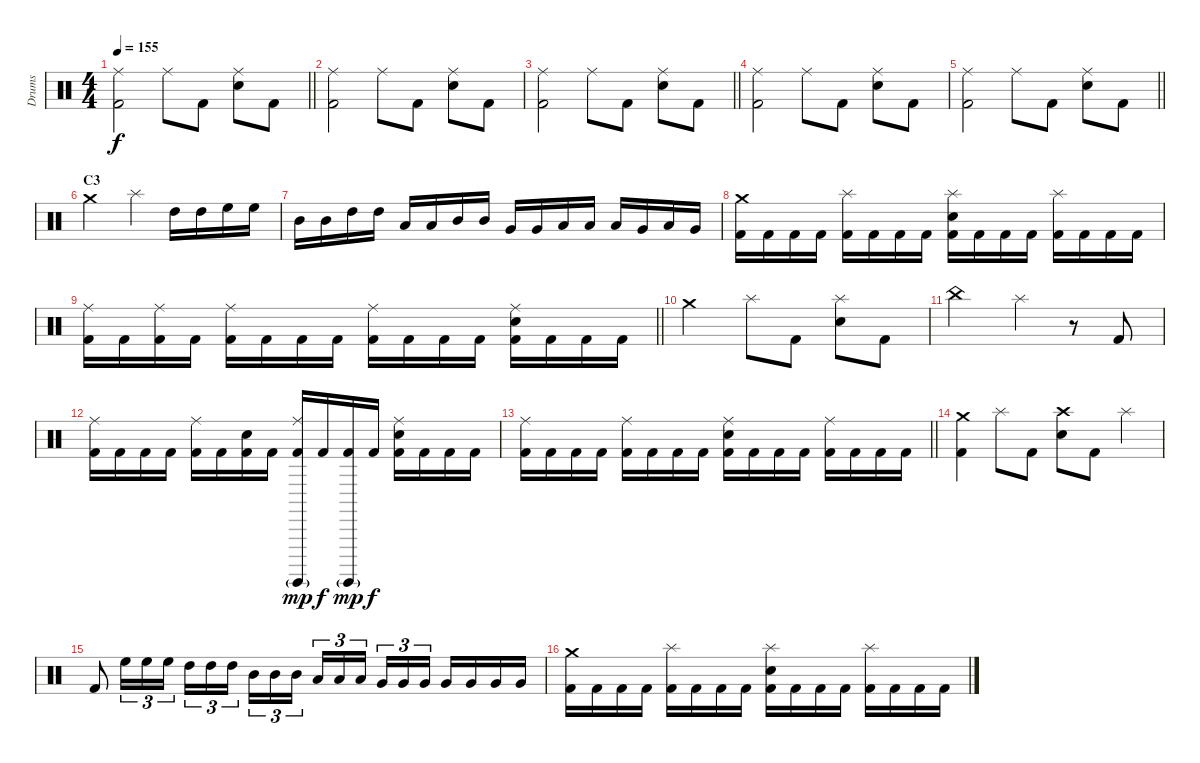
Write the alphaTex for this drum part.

\track ("Drums" "Drums") {instrument percussion}
\staff {score}
\articulation defaults
\ts (4 4)
\tempo 155
\clef neutral
\barLineRight lightlight
\ks c
("Ride (middle)" "Kick (hit) 2").2{dy f} "Ride (middle)".8 "Kick (hit) 2".8 ("Ride (middle)" "Electric Snare (hit)").8 "Kick (hit) 2".8 |
\section ("" "")
("Ride (middle)" "Kick (hit) 2").2 "Ride (middle)".8 "Kick (hit) 2".8 ("Ride (middle)" "Electric Snare (hit)").8 "Kick (hit) 2".8 |
\barLineRight lightlight
("Ride (middle)" "Kick (hit) 2").2 "Ride (middle)".8 "Kick (hit) 2".8 ("Ride (middle)" "Electric Snare (hit)").8 "Kick (hit) 2".8 |
("Ride (middle)" "Kick (hit) 2").2 "Ride (middle)".8 "Kick (hit) 2".8 ("Ride (middle)" "Electric Snare (hit)").8 "Kick (hit) 2".8 |
\barLineRight lightlight
("Ride (middle)" "Kick (hit) 2").2 "Ride (middle)".8 "Kick (hit) 2".8 ("Ride (middle)" "Electric Snare (hit)").8 "Kick (hit) 2".8 |
\section ("" "C3")
"Crash medium (hit)".2 "Splash (hit)".4 "High Tom (hit)".16 "High Tom (hit)".16 "High Floor Tom (hit)".16 "High Floor Tom (hit)".16 |
"Mid Tom (hit)".16 "Mid Tom (hit)".16 "High Tom (hit)".16 "High Tom (hit)".16 "Low Tom (hit)".16 "Low Tom (hit)".16 "Mid Tom (hit)".16 "Mid Tom (hit)".16 "Very Low Tom (hit)".16 "Very Low Tom (hit)".16 "Low Tom (hit)".16 "Low Tom (hit)".16 "Low Floor Tom (hit)".16 "Very Low Tom (hit)".16 "Low Floor Tom (hit)".16 "Very Low Tom (hit)".16 |
("Crash medium (hit)" "Kick (hit) 2").16 "Kick (hit) 2".16 "Kick (hit) 2".16 "Kick (hit) 2".16 ("Splash (hit)" "Kick (hit) 2").16 "Kick (hit) 2".16 "Kick (hit) 2".16 "Kick (hit) 2".16 ("Splash (hit)" "Electric Snare (hit)" "Kick (hit) 2").16 "Kick (hit) 2".16 "Kick (hit) 2".16 "Kick (hit) 2".16 ("Splash (hit)" "Kick (hit) 2").16 "Kick (hit) 2".16 "Kick (hit) 2".16 "Kick (hit) 2".16 |
\barLineRight lightlight
("Ride (middle)" "Kick (hit) 2").16 "Kick (hit) 2".16 ("Ride (middle)" "Kick (hit) 2").16 "Kick (hit) 2".16 ("Ride (middle)" "Kick (hit) 2").16 "Kick (hit) 2".16 "Kick (hit) 2".16 "Kick (hit) 2".16 ("Ride (middle)" "Kick (hit) 2").16 "Kick (hit) 2".16 "Kick (hit) 2".16 "Kick (hit) 2".16 ("Ride (middle)" "Electric Snare (hit)" "Kick (hit) 2").16 "Kick (hit) 2".16 "Kick (hit) 2".16 "Kick (hit) 2".16 |
\section ("" "")
"Crash medium (hit)".2 "Splash (hit)".8 "Kick (hit) 2".8 ("Splash (hit)" "Electric Snare (hit)").8 "Kick (hit) 2".8 |
"China (hit)".2 "Splash (hit)".4 r.8 "Kick (hit) 2".8 |
("Ride (middle)" "Kick (hit) 2").16 "Kick (hit) 2".16 "Kick (hit) 2".16 "Kick (hit) 2".16 ("Ride (middle)" "Kick (hit) 2").16 "Kick (hit) 2".16 ("Electric Snare (hit)" "Kick (hit) 2").16 "Kick (hit) 2".16 ("Ride (middle)" "Surdo (hit)"{g} "Kick (hit) 2").16{dy mp} "Kick (hit) 2".16{dy f} ("Surdo (hit)"{g} "Kick (hit) 2").16{dy mp} "Kick (hit) 2".16{dy f} ("Ride (middle)" "Electric Snare (hit)" "Kick (hit) 2").16 "Kick (hit) 2".16 "Kick (hit) 2".16 "Kick (hit) 2".16 |
\barLineRight lightlight
("Ride (middle)" "Kick (hit) 2").16 "Kick (hit) 2".16 "Kick (hit) 2".16 "Kick (hit) 2".16 ("Ride (middle)" "Kick (hit) 2").16 "Kick (hit) 2".16 "Kick (hit) 2".16 "Kick (hit) 2".16 ("Ride (middle)" "Electric Snare (hit)" "Kick (hit) 2").16 "Kick (hit) 2".16 "Kick (hit) 2".16 "Kick (hit) 2".16 ("Ride (middle)" "Kick (hit) 2").16 "Kick (hit) 2".16 "Kick (hit) 2".16 "Kick (hit) 2".16 |
\section ("" "")
("Crash medium (hit)" "Kick (hit) 2").4 "Splash (hit)".8 "Kick (hit) 2".8 ("Crash high (hit)" "Electric Snare (hit)").8 "Kick (hit) 2".8 "Splash (hit)".4 |
"Kick (hit) 2".8 "High Floor Tom (hit)".16{tu (3 2)} "High Floor Tom (hit)".16{tu (3 2)} "High Floor Tom (hit)".16{tu (3 2)} "High Tom (hit)".16{tu (3 2)} "High Tom (hit)".16{tu (3 2)} "High Tom (hit)".16{tu (3 2) beam splitsecondary} "Mid Tom (hit)".16{tu (3 2)} "Mid Tom (hit)".16{tu (3 2)} "Mid Tom (hit)".16{tu (3 2)} "Low Tom (hit)".16{tu (3 2)} "Low Tom (hit)".16{tu (3 2)} "Low Tom (hit)".16{tu (3 2) beam splitsecondary} "Very Low Tom (hit)".16{tu (3 2)} "Very Low Tom (hit)".16{tu (3 2)} "Very Low Tom (hit)".16{tu (3 2)} "Very Low Tom (hit)".16 "Very Low Tom (hit)".16 "Very Low Tom (hit)".16 "Very Low Tom (hit)".16 |
("Crash medium (hit)" "Kick (hit) 2").16 "Kick (hit) 2".16 "Kick (hit) 2".16 "Kick (hit) 2".16 ("Splash (hit)" "Kick (hit) 2").16 "Kick (hit) 2".16 "Kick (hit) 2".16 "Kick (hit) 2".16 ("Splash (hit)" "Electric Snare (hit)" "Kick (hit) 2").16 "Kick (hit) 2".16 "Kick (hit) 2".16 "Kick (hit) 2".16 ("Splash (hit)" "Kick (hit) 2").16 "Kick (hit) 2".16 "Kick (hit) 2".16 "Kick (hit) 2".16
